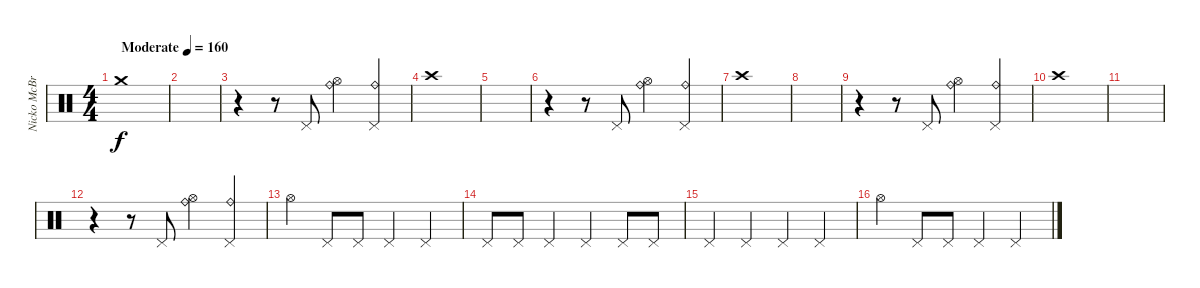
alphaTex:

\track ("Nicko McBrain" "Nicko McBr") {instrument percussion}
\staff {score}
\articulation defaults
\ts (4 4)
\tempo (160 "Moderate")
\clef neutral
\ks c "Crash medium (hit)".1{dy f}
|
|
r.4 r.8 "Pedal Hi-Hat (hit)".8 ("Ride (bell)" "Hi-Hat (open)").4 ("Ride (bell)" "Pedal Hi-Hat (hit)").4 |
"Crash high (hit)".1 |
|
r.4 r.8 "Pedal Hi-Hat (hit)".8 ("Ride (bell)" "Hi-Hat (open)").4 ("Ride (bell)" "Pedal Hi-Hat (hit)").4 |
"Crash high (hit)".1 |
|
r.4 r.8 "Pedal Hi-Hat (hit)".8 ("Ride (bell)" "Hi-Hat (open)").4 ("Ride (bell)" "Pedal Hi-Hat (hit)").4 |
"Crash high (hit)".1 |
|
r.4 r.8 "Pedal Hi-Hat (hit)".8 ("Ride (bell)" "Hi-Hat (open)").4 ("Ride (bell)" "Pedal Hi-Hat (hit)").4 |
"Hi-Hat (open)".4 "Pedal Hi-Hat (hit)".8 "Pedal Hi-Hat (hit)".8 "Pedal Hi-Hat (hit)".4 "Pedal Hi-Hat (hit)".4 |
"Pedal Hi-Hat (hit)".8 "Pedal Hi-Hat (hit)".8 "Pedal Hi-Hat (hit)".4 "Pedal Hi-Hat (hit)".4 "Pedal Hi-Hat (hit)".8 "Pedal Hi-Hat (hit)".8 |
"Pedal Hi-Hat (hit)".4 "Pedal Hi-Hat (hit)".4 "Pedal Hi-Hat (hit)".4 "Pedal Hi-Hat (hit)".4 |
"Hi-Hat (open)".4 "Pedal Hi-Hat (hit)".8 "Pedal Hi-Hat (hit)".8 "Pedal Hi-Hat (hit)".4 "Pedal Hi-Hat (hit)".4
